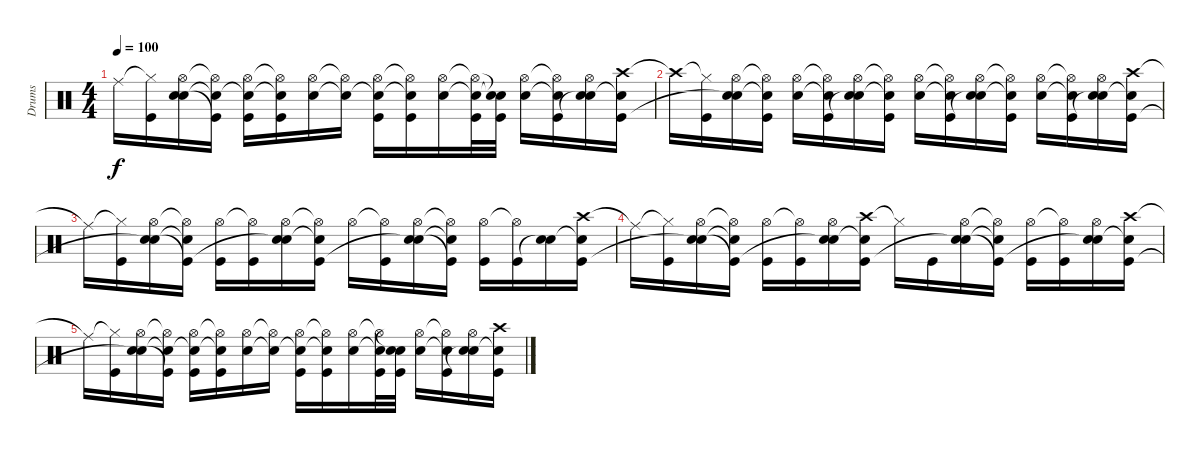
\track ("Drums" "Drums") {instrument percussion}
\staff {score}
\articulation defaults
\ts (4 4)
\tempo 100
\clef neutral
\ks c "Ride (middle)"{t}.16{dy f}
("Hi-Hat (closed)"{t} "Kick (hit)").16 ("Hi-Hat (open)" "Snare (hit) 2" "Snare (hit)"{t}).16 ("Hi-Hat (open)"{t} "Snare (hit) 2"{t} "Kick (hit)"{t}).16 ("Hi-Hat (open)" "Snare (hit) 2"{t} "Kick (hit)").16 ("Hi-Hat (open)"{t} "Snare (hit) 2"{t} "Kick (hit)").16 ("Hi-Hat (open)" "Snare (hit) 2").16 ("Hi-Hat (open)"{t} "Snare (hit) 2"{t}).16 ("Hi-Hat (open)" "Snare (hit) 2"{t} "Kick (hit)").16 ("Hi-Hat (open)"{t} "Snare (hit) 2"{t} "Kick (hit)").16 ("Hi-Hat (open)" "Snare (hit) 2").16 ("Hi-Hat (open)"{t} "Snare (hit) 2"{t} "Kick (hit)").32 ("Snare (hit)"{t} "Snare (hit)"{t} "Kick (hit)").32 ("Hi-Hat (open)" "Snare (hit) 2").16 ("Hi-Hat (open)"{t} "Snare (hit) 2"{t} "Kick (hit)").16 ("Hi-Hat (open)" "Snare (hit) 2" "Snare (hit)"{t}).16 ("Crash high (hit)" "Snare (hit) 2"{t} "Kick (hit)").16 |
"Crash high (hit)"{t}.16 ("Hi-Hat (closed)"{t} "Kick (hit)").16 ("Hi-Hat (open)" "Snare (hit) 2" "Snare (hit)"{t}).16 ("Hi-Hat (open)"{t} "Snare (hit) 2"{t} "Kick (hit)").16 ("Hi-Hat (open)" "Snare (hit) 2").16 ("Hi-Hat (open)"{t} "Snare (hit) 2"{t} "Kick (hit)").16 ("Hi-Hat (open)" "Snare (hit) 2" "Snare (hit)"{t}).16 ("Hi-Hat (open)"{t} "Snare (hit) 2"{t} "Kick (hit)").16 ("Hi-Hat (open)" "Snare (hit) 2").16 ("Hi-Hat (open)"{t} "Snare (hit) 2"{t} "Kick (hit)").16 ("Hi-Hat (open)" "Snare (hit) 2" "Snare (hit)"{t}).16 ("Hi-Hat (open)"{t} "Snare (hit) 2"{t} "Kick (hit)").16 ("Hi-Hat (open)" "Snare (hit) 2").16 ("Hi-Hat (open)"{t} "Snare (hit) 2"{t} "Kick (hit)").16 ("Hi-Hat (open)" "Snare (hit) 2" "Snare (hit)"{t}).16 ("Crash high (hit)" "Snare (hit) 2"{t} "Kick (hit)").16 |
"Ride (middle)"{t}.16 ("Hi-Hat (closed)"{t} "Kick (hit)").16 ("Hi-Hat (open)" "Snare (hit) 2" "Snare (hit)"{t}).16 ("Hi-Hat (open)"{t} "Snare (hit) 2"{t} "Kick (hit)"{t}).16 ("Hi-Hat (open)" "Kick (hit)").16 ("Hi-Hat (open)"{t} "Kick (hit)").16 ("Hi-Hat (open)" "Snare (hit) 2" "Snare (hit)"{t}).16 ("Hi-Hat (open)"{t} "Snare (hit) 2"{t} "Kick (hit)").16 "Hi-Hat (open)".16 ("Hi-Hat (open)"{t} "Kick (hit)").16 ("Hi-Hat (open)" "Snare (hit) 2" "Snare (hit)"{t}).16 ("Hi-Hat (open)"{t} "Snare (hit) 2"{t} "Kick (hit)"{t}).16 ("Hi-Hat (open)" "Kick (hit)").16 ("Hi-Hat (open)"{t} "Kick (hit)").16 ("Snare (hit) 2" "Snare (hit)"{t}).16 ("Crash high (hit)" "Snare (hit) 2"{t} "Kick (hit)").16 |
"Ride (middle)"{t}.16 ("Hi-Hat (closed)"{t} "Kick (hit)").16 ("Hi-Hat (open)" "Snare (hit) 2" "Snare (hit)"{t}).16 ("Hi-Hat (open)"{t} "Snare (hit) 2"{t} "Kick (hit)"{t}).16 ("Hi-Hat (open)" "Kick (hit)").16 ("Hi-Hat (open)"{t} "Kick (hit)").16 ("Hi-Hat (open)" "Snare (hit) 2" "Snare (hit)"{t}).16 ("Crash high (hit)" "Snare (hit) 2"{t} "Kick (hit)").16 "Hi-Hat (closed)"{t}.16 "Kick (hit)".16 ("Hi-Hat (open)" "Snare (hit) 2" "Snare (hit)"{t}).16 ("Hi-Hat (open)"{t} "Snare (hit) 2"{t} "Kick (hit)"{t}).16 ("Hi-Hat (open)" "Kick (hit)").16 ("Hi-Hat (open)"{t} "Kick (hit)").16 ("Hi-Hat (open)" "Snare (hit) 2" "Snare (hit)"{t}).16 ("Crash high (hit)" "Snare (hit) 2"{t} "Kick (hit)").16 |
"Ride (middle)"{t}.16 ("Hi-Hat (closed)"{t} "Kick (hit)").16 ("Hi-Hat (open)" "Snare (hit) 2" "Snare (hit)"{t}).16 ("Hi-Hat (open)"{t} "Snare (hit) 2"{t} "Kick (hit)"{t}).16 ("Hi-Hat (open)" "Snare (hit) 2"{t} "Kick (hit)").16 ("Hi-Hat (open)"{t} "Snare (hit) 2"{t} "Kick (hit)").16 ("Hi-Hat (open)" "Snare (hit) 2").16 ("Hi-Hat (open)"{t} "Snare (hit) 2"{t}).16 ("Hi-Hat (open)" "Snare (hit) 2"{t} "Kick (hit)").16 ("Hi-Hat (open)"{t} "Snare (hit) 2"{t} "Kick (hit)").16 ("Hi-Hat (open)" "Snare (hit) 2").16 ("Hi-Hat (open)"{t} "Snare (hit) 2"{t} "Kick (hit)").32 ("Snare (hit)"{t} "Snare (hit)"{t} "Kick (hit)").32 ("Hi-Hat (open)" "Snare (hit) 2").16 ("Hi-Hat (open)"{t} "Snare (hit) 2"{t} "Kick (hit)").16 ("Hi-Hat (open)" "Snare (hit) 2" "Snare (hit)"{t}).16 ("Crash high (hit)" "Snare (hit) 2"{t} "Kick (hit)").16
